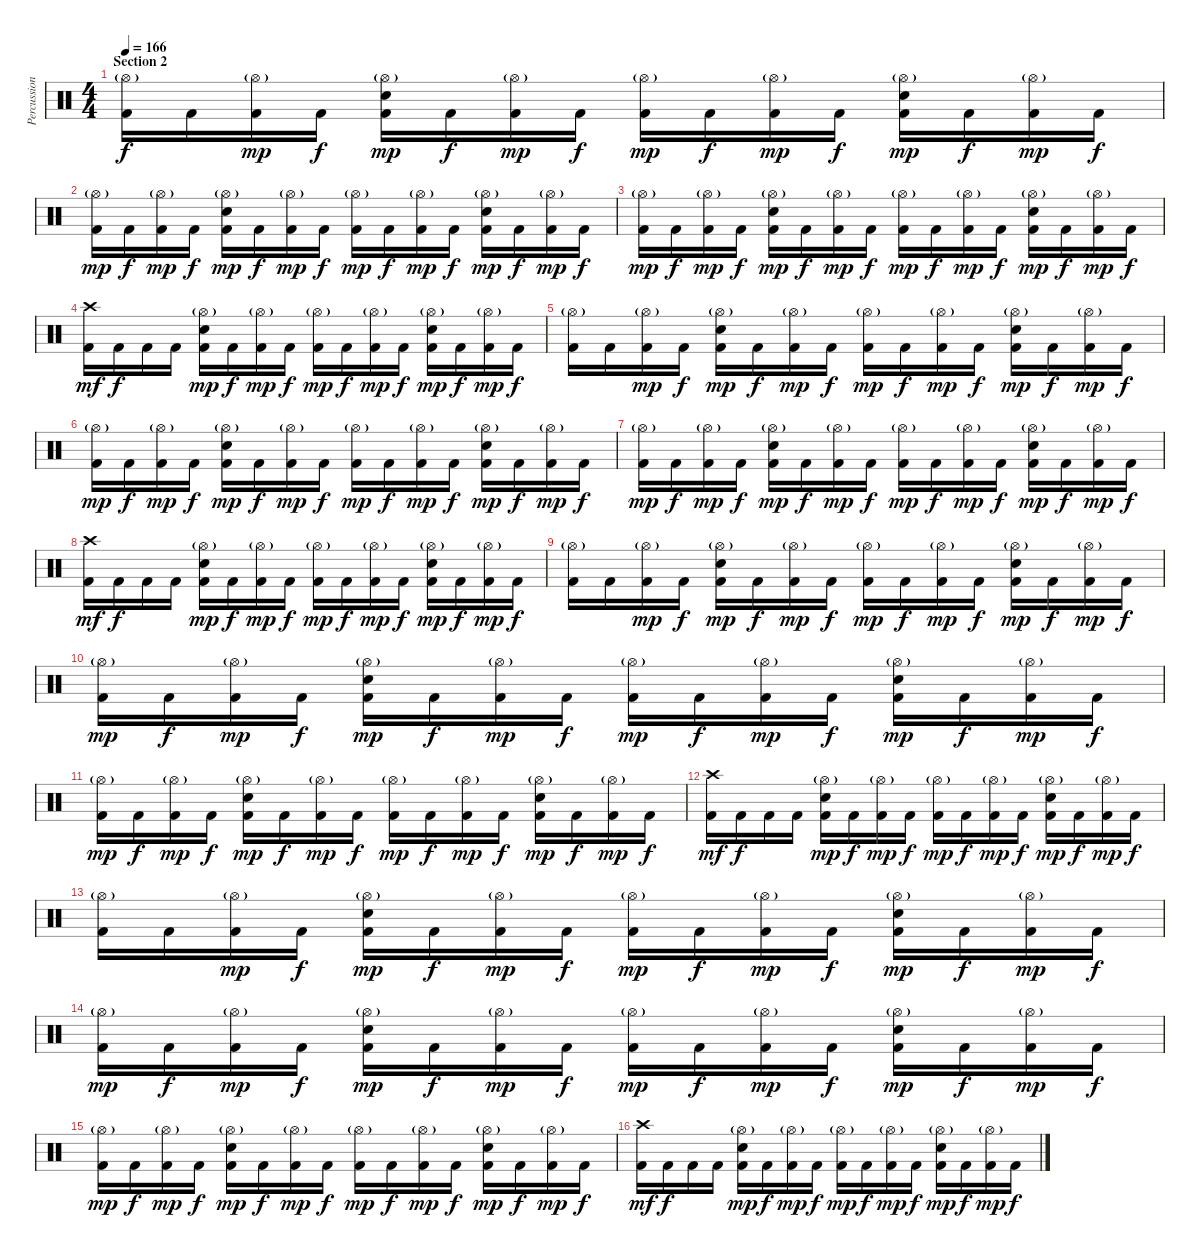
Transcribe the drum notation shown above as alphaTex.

\track ("Percussion" "Percussion") {instrument percussion}
\staff {score}
\articulation defaults
\ts (4 4)
\section ("" "Section 2")
\tempo 166
\clef neutral
\ks c
("Kick (hit) 2" "Hi-Hat (open)"{g}).16{dy f} "Kick (hit) 2".16 ("Kick (hit) 2" "Hi-Hat (open)"{g}).16{dy mp} "Kick (hit) 2".16{dy f} ("Kick (hit) 2" "Electric Snare (hit)" "Hi-Hat (open)"{g}).16{dy mp} "Kick (hit) 2".16{dy f} ("Kick (hit) 2" "Hi-Hat (open)"{g}).16{dy mp} "Kick (hit) 2".16{dy f} ("Kick (hit) 2" "Hi-Hat (open)"{g}).16{dy mp} "Kick (hit) 2".16{dy f} ("Kick (hit) 2" "Hi-Hat (open)"{g}).16{dy mp} "Kick (hit) 2".16{dy f} ("Kick (hit) 2" "Electric Snare (hit)" "Hi-Hat (open)"{g}).16{dy mp} "Kick (hit) 2".16{dy f} ("Kick (hit) 2" "Hi-Hat (open)"{g}).16{dy mp} "Kick (hit) 2".16{dy f} |
("Kick (hit) 2" "Hi-Hat (open)"{g}).16{dy mp} "Kick (hit) 2".16{dy f} ("Kick (hit) 2" "Hi-Hat (open)"{g}).16{dy mp} "Kick (hit) 2".16{dy f} ("Kick (hit) 2" "Electric Snare (hit)" "Hi-Hat (open)"{g}).16{dy mp} "Kick (hit) 2".16{dy f} ("Kick (hit) 2" "Hi-Hat (open)"{g}).16{dy mp} "Kick (hit) 2".16{dy f} ("Kick (hit) 2" "Hi-Hat (open)"{g}).16{dy mp} "Kick (hit) 2".16{dy f} ("Kick (hit) 2" "Hi-Hat (open)"{g}).16{dy mp} "Kick (hit) 2".16{dy f} ("Kick (hit) 2" "Electric Snare (hit)" "Hi-Hat (open)"{g}).16{dy mp} "Kick (hit) 2".16{dy f} ("Kick (hit) 2" "Hi-Hat (open)"{g}).16{dy mp} "Kick (hit) 2".16{dy f} |
("Kick (hit) 2" "Hi-Hat (open)"{g}).16{dy mp} "Kick (hit) 2".16{dy f} ("Kick (hit) 2" "Hi-Hat (open)"{g}).16{dy mp} "Kick (hit) 2".16{dy f} ("Kick (hit) 2" "Electric Snare (hit)" "Hi-Hat (open)"{g}).16{dy mp} "Kick (hit) 2".16{dy f} ("Kick (hit) 2" "Hi-Hat (open)"{g}).16{dy mp} "Kick (hit) 2".16{dy f} ("Kick (hit) 2" "Hi-Hat (open)"{g}).16{dy mp} "Kick (hit) 2".16{dy f} ("Kick (hit) 2" "Hi-Hat (open)"{g}).16{dy mp} "Kick (hit) 2".16{dy f} ("Kick (hit) 2" "Electric Snare (hit)" "Hi-Hat (open)"{g}).16{dy mp} "Kick (hit) 2".16{dy f} ("Kick (hit) 2" "Hi-Hat (open)"{g}).16{dy mp} "Kick (hit) 2".16{dy f} |
("Kick (hit) 2" "Crash high (hit)").16{dy mf} "Kick (hit) 2".16{dy f} "Kick (hit) 2".16 "Kick (hit) 2".16 ("Kick (hit) 2" "Electric Snare (hit)" "Hi-Hat (open)"{g}).16{dy mp} "Kick (hit) 2".16{dy f} ("Kick (hit) 2" "Hi-Hat (open)"{g}).16{dy mp} "Kick (hit) 2".16{dy f} ("Kick (hit) 2" "Hi-Hat (open)"{g}).16{dy mp} "Kick (hit) 2".16{dy f} ("Kick (hit) 2" "Hi-Hat (open)"{g}).16{dy mp} "Kick (hit) 2".16{dy f} ("Kick (hit) 2" "Electric Snare (hit)" "Hi-Hat (open)"{g}).16{dy mp} "Kick (hit) 2".16{dy f} ("Kick (hit) 2" "Hi-Hat (open)"{g}).16{dy mp} "Kick (hit) 2".16{dy f} |
("Kick (hit) 2" "Hi-Hat (open)"{g}).16 "Kick (hit) 2".16 ("Kick (hit) 2" "Hi-Hat (open)"{g}).16{dy mp} "Kick (hit) 2".16{dy f} ("Kick (hit) 2" "Electric Snare (hit)" "Hi-Hat (open)"{g}).16{dy mp} "Kick (hit) 2".16{dy f} ("Kick (hit) 2" "Hi-Hat (open)"{g}).16{dy mp} "Kick (hit) 2".16{dy f} ("Kick (hit) 2" "Hi-Hat (open)"{g}).16{dy mp} "Kick (hit) 2".16{dy f} ("Kick (hit) 2" "Hi-Hat (open)"{g}).16{dy mp} "Kick (hit) 2".16{dy f} ("Kick (hit) 2" "Electric Snare (hit)" "Hi-Hat (open)"{g}).16{dy mp} "Kick (hit) 2".16{dy f} ("Kick (hit) 2" "Hi-Hat (open)"{g}).16{dy mp} "Kick (hit) 2".16{dy f} |
("Kick (hit) 2" "Hi-Hat (open)"{g}).16{dy mp} "Kick (hit) 2".16{dy f} ("Kick (hit) 2" "Hi-Hat (open)"{g}).16{dy mp} "Kick (hit) 2".16{dy f} ("Kick (hit) 2" "Electric Snare (hit)" "Hi-Hat (open)"{g}).16{dy mp} "Kick (hit) 2".16{dy f} ("Kick (hit) 2" "Hi-Hat (open)"{g}).16{dy mp} "Kick (hit) 2".16{dy f} ("Kick (hit) 2" "Hi-Hat (open)"{g}).16{dy mp} "Kick (hit) 2".16{dy f} ("Kick (hit) 2" "Hi-Hat (open)"{g}).16{dy mp} "Kick (hit) 2".16{dy f} ("Kick (hit) 2" "Electric Snare (hit)" "Hi-Hat (open)"{g}).16{dy mp} "Kick (hit) 2".16{dy f} ("Kick (hit) 2" "Hi-Hat (open)"{g}).16{dy mp} "Kick (hit) 2".16{dy f} |
("Kick (hit) 2" "Hi-Hat (open)"{g}).16{dy mp} "Kick (hit) 2".16{dy f} ("Kick (hit) 2" "Hi-Hat (open)"{g}).16{dy mp} "Kick (hit) 2".16{dy f} ("Kick (hit) 2" "Electric Snare (hit)" "Hi-Hat (open)"{g}).16{dy mp} "Kick (hit) 2".16{dy f} ("Kick (hit) 2" "Hi-Hat (open)"{g}).16{dy mp} "Kick (hit) 2".16{dy f} ("Kick (hit) 2" "Hi-Hat (open)"{g}).16{dy mp} "Kick (hit) 2".16{dy f} ("Kick (hit) 2" "Hi-Hat (open)"{g}).16{dy mp} "Kick (hit) 2".16{dy f} ("Kick (hit) 2" "Electric Snare (hit)" "Hi-Hat (open)"{g}).16{dy mp} "Kick (hit) 2".16{dy f} ("Kick (hit) 2" "Hi-Hat (open)"{g}).16{dy mp} "Kick (hit) 2".16{dy f} |
("Kick (hit) 2" "Crash high (hit)").16{dy mf} "Kick (hit) 2".16{dy f} "Kick (hit) 2".16 "Kick (hit) 2".16 ("Kick (hit) 2" "Electric Snare (hit)" "Hi-Hat (open)"{g}).16{dy mp} "Kick (hit) 2".16{dy f} ("Kick (hit) 2" "Hi-Hat (open)"{g}).16{dy mp} "Kick (hit) 2".16{dy f} ("Kick (hit) 2" "Hi-Hat (open)"{g}).16{dy mp} "Kick (hit) 2".16{dy f} ("Kick (hit) 2" "Hi-Hat (open)"{g}).16{dy mp} "Kick (hit) 2".16{dy f} ("Kick (hit) 2" "Electric Snare (hit)" "Hi-Hat (open)"{g}).16{dy mp} "Kick (hit) 2".16{dy f} ("Kick (hit) 2" "Hi-Hat (open)"{g}).16{dy mp} "Kick (hit) 2".16{dy f} |
("Kick (hit) 2" "Hi-Hat (open)"{g}).16 "Kick (hit) 2".16 ("Kick (hit) 2" "Hi-Hat (open)"{g}).16{dy mp} "Kick (hit) 2".16{dy f} ("Kick (hit) 2" "Electric Snare (hit)" "Hi-Hat (open)"{g}).16{dy mp} "Kick (hit) 2".16{dy f} ("Kick (hit) 2" "Hi-Hat (open)"{g}).16{dy mp} "Kick (hit) 2".16{dy f} ("Kick (hit) 2" "Hi-Hat (open)"{g}).16{dy mp} "Kick (hit) 2".16{dy f} ("Kick (hit) 2" "Hi-Hat (open)"{g}).16{dy mp} "Kick (hit) 2".16{dy f} ("Kick (hit) 2" "Electric Snare (hit)" "Hi-Hat (open)"{g}).16{dy mp} "Kick (hit) 2".16{dy f} ("Kick (hit) 2" "Hi-Hat (open)"{g}).16{dy mp} "Kick (hit) 2".16{dy f} |
("Kick (hit) 2" "Hi-Hat (open)"{g}).16{dy mp} "Kick (hit) 2".16{dy f} ("Kick (hit) 2" "Hi-Hat (open)"{g}).16{dy mp} "Kick (hit) 2".16{dy f} ("Kick (hit) 2" "Electric Snare (hit)" "Hi-Hat (open)"{g}).16{dy mp} "Kick (hit) 2".16{dy f} ("Kick (hit) 2" "Hi-Hat (open)"{g}).16{dy mp} "Kick (hit) 2".16{dy f} ("Kick (hit) 2" "Hi-Hat (open)"{g}).16{dy mp} "Kick (hit) 2".16{dy f} ("Kick (hit) 2" "Hi-Hat (open)"{g}).16{dy mp} "Kick (hit) 2".16{dy f} ("Kick (hit) 2" "Electric Snare (hit)" "Hi-Hat (open)"{g}).16{dy mp} "Kick (hit) 2".16{dy f} ("Kick (hit) 2" "Hi-Hat (open)"{g}).16{dy mp} "Kick (hit) 2".16{dy f} |
("Kick (hit) 2" "Hi-Hat (open)"{g}).16{dy mp} "Kick (hit) 2".16{dy f} ("Kick (hit) 2" "Hi-Hat (open)"{g}).16{dy mp} "Kick (hit) 2".16{dy f} ("Kick (hit) 2" "Electric Snare (hit)" "Hi-Hat (open)"{g}).16{dy mp} "Kick (hit) 2".16{dy f} ("Kick (hit) 2" "Hi-Hat (open)"{g}).16{dy mp} "Kick (hit) 2".16{dy f} ("Kick (hit) 2" "Hi-Hat (open)"{g}).16{dy mp} "Kick (hit) 2".16{dy f} ("Kick (hit) 2" "Hi-Hat (open)"{g}).16{dy mp} "Kick (hit) 2".16{dy f} ("Kick (hit) 2" "Electric Snare (hit)" "Hi-Hat (open)"{g}).16{dy mp} "Kick (hit) 2".16{dy f} ("Kick (hit) 2" "Hi-Hat (open)"{g}).16{dy mp} "Kick (hit) 2".16{dy f} |
("Kick (hit) 2" "Crash high (hit)").16{dy mf} "Kick (hit) 2".16{dy f} "Kick (hit) 2".16 "Kick (hit) 2".16 ("Kick (hit) 2" "Electric Snare (hit)" "Hi-Hat (open)"{g}).16{dy mp} "Kick (hit) 2".16{dy f} ("Kick (hit) 2" "Hi-Hat (open)"{g}).16{dy mp} "Kick (hit) 2".16{dy f} ("Kick (hit) 2" "Hi-Hat (open)"{g}).16{dy mp} "Kick (hit) 2".16{dy f} ("Kick (hit) 2" "Hi-Hat (open)"{g}).16{dy mp} "Kick (hit) 2".16{dy f} ("Kick (hit) 2" "Electric Snare (hit)" "Hi-Hat (open)"{g}).16{dy mp} "Kick (hit) 2".16{dy f} ("Kick (hit) 2" "Hi-Hat (open)"{g}).16{dy mp} "Kick (hit) 2".16{dy f} |
("Kick (hit) 2" "Hi-Hat (open)"{g}).16 "Kick (hit) 2".16 ("Kick (hit) 2" "Hi-Hat (open)"{g}).16{dy mp} "Kick (hit) 2".16{dy f} ("Kick (hit) 2" "Electric Snare (hit)" "Hi-Hat (open)"{g}).16{dy mp} "Kick (hit) 2".16{dy f} ("Kick (hit) 2" "Hi-Hat (open)"{g}).16{dy mp} "Kick (hit) 2".16{dy f} ("Kick (hit) 2" "Hi-Hat (open)"{g}).16{dy mp} "Kick (hit) 2".16{dy f} ("Kick (hit) 2" "Hi-Hat (open)"{g}).16{dy mp} "Kick (hit) 2".16{dy f} ("Kick (hit) 2" "Electric Snare (hit)" "Hi-Hat (open)"{g}).16{dy mp} "Kick (hit) 2".16{dy f} ("Kick (hit) 2" "Hi-Hat (open)"{g}).16{dy mp} "Kick (hit) 2".16{dy f} |
("Kick (hit) 2" "Hi-Hat (open)"{g}).16{dy mp} "Kick (hit) 2".16{dy f} ("Kick (hit) 2" "Hi-Hat (open)"{g}).16{dy mp} "Kick (hit) 2".16{dy f} ("Kick (hit) 2" "Electric Snare (hit)" "Hi-Hat (open)"{g}).16{dy mp} "Kick (hit) 2".16{dy f} ("Kick (hit) 2" "Hi-Hat (open)"{g}).16{dy mp} "Kick (hit) 2".16{dy f} ("Kick (hit) 2" "Hi-Hat (open)"{g}).16{dy mp} "Kick (hit) 2".16{dy f} ("Kick (hit) 2" "Hi-Hat (open)"{g}).16{dy mp} "Kick (hit) 2".16{dy f} ("Kick (hit) 2" "Electric Snare (hit)" "Hi-Hat (open)"{g}).16{dy mp} "Kick (hit) 2".16{dy f} ("Kick (hit) 2" "Hi-Hat (open)"{g}).16{dy mp} "Kick (hit) 2".16{dy f} |
("Kick (hit) 2" "Hi-Hat (open)"{g}).16{dy mp} "Kick (hit) 2".16{dy f} ("Kick (hit) 2" "Hi-Hat (open)"{g}).16{dy mp} "Kick (hit) 2".16{dy f} ("Kick (hit) 2" "Electric Snare (hit)" "Hi-Hat (open)"{g}).16{dy mp} "Kick (hit) 2".16{dy f} ("Kick (hit) 2" "Hi-Hat (open)"{g}).16{dy mp} "Kick (hit) 2".16{dy f} ("Kick (hit) 2" "Hi-Hat (open)"{g}).16{dy mp} "Kick (hit) 2".16{dy f} ("Kick (hit) 2" "Hi-Hat (open)"{g}).16{dy mp} "Kick (hit) 2".16{dy f} ("Kick (hit) 2" "Electric Snare (hit)" "Hi-Hat (open)"{g}).16{dy mp} "Kick (hit) 2".16{dy f} ("Kick (hit) 2" "Hi-Hat (open)"{g}).16{dy mp} "Kick (hit) 2".16{dy f} |
("Kick (hit) 2" "Crash high (hit)").16{dy mf} "Kick (hit) 2".16{dy f} "Kick (hit) 2".16 "Kick (hit) 2".16 ("Kick (hit) 2" "Electric Snare (hit)" "Hi-Hat (open)"{g}).16{dy mp} "Kick (hit) 2".16{dy f} ("Kick (hit) 2" "Hi-Hat (open)"{g}).16{dy mp} "Kick (hit) 2".16{dy f} ("Kick (hit) 2" "Hi-Hat (open)"{g}).16{dy mp} "Kick (hit) 2".16{dy f} ("Kick (hit) 2" "Hi-Hat (open)"{g}).16{dy mp} "Kick (hit) 2".16{dy f} ("Kick (hit) 2" "Electric Snare (hit)" "Hi-Hat (open)"{g}).16{dy mp} "Kick (hit) 2".16{dy f} ("Kick (hit) 2" "Hi-Hat (open)"{g}).16{dy mp} "Kick (hit) 2".16{dy f}
